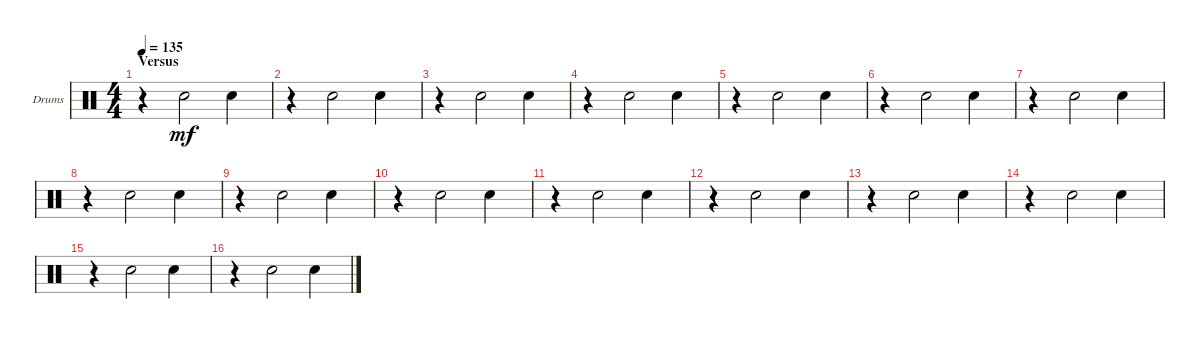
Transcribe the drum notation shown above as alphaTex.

\bracketExtendMode groupsimilarinstruments
\firstSystemTrackNameOrientation horizontal
\otherSystemsTrackNameOrientation horizontal
\track ("Snare" "Drums") {instrument percussion}
\staff {score}
\articulation defaults
\ts (4 4)
\section ("" "Versus")
\tempo 135
\clef neutral
\ks c
r.4{dy mp} "Snare (hit) 2".2{dy mf} "Snare (hit) 2".4 |
r.4 "Snare (hit) 2".2 "Snare (hit) 2".4 |
r.4 "Snare (hit) 2".2 "Snare (hit) 2".4 |
r.4 "Snare (hit) 2".2 "Snare (hit) 2".4 |
r.4 "Snare (hit) 2".2 "Snare (hit) 2".4 |
r.4 "Snare (hit) 2".2 "Snare (hit) 2".4 |
r.4 "Snare (hit) 2".2 "Snare (hit) 2".4 |
r.4 "Snare (hit) 2".2 "Snare (hit) 2".4 |
r.4 "Snare (hit) 2".2 "Snare (hit) 2".4 |
r.4 "Snare (hit) 2".2 "Snare (hit) 2".4 |
r.4 "Snare (hit) 2".2 "Snare (hit) 2".4 |
r.4 "Snare (hit) 2".2 "Snare (hit) 2".4 |
r.4 "Snare (hit) 2".2 "Snare (hit) 2".4 |
r.4 "Snare (hit) 2".2 "Snare (hit) 2".4 |
r.4 "Snare (hit) 2".2 "Snare (hit) 2".4 |
r.4 "Snare (hit) 2".2 "Snare (hit) 2".4
